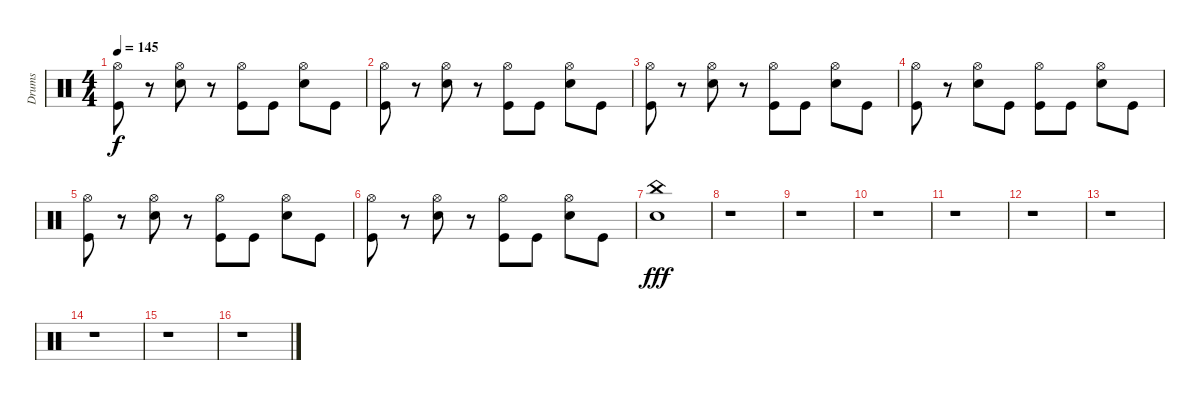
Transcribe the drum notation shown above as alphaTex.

\track ("Drums" "Drums") {instrument percussion}
\staff {score}
\articulation defaults
\ts (4 4)
\tempo 145
\clef neutral
\ks c
("Hi-Hat (open)" "Kick (hit)").8{dy f} r.8 ("Hi-Hat (open)" "Snare (hit) 2").8 r.8 ("Hi-Hat (open)" "Kick (hit)").8 "Kick (hit)".8 ("Hi-Hat (open)" "Snare (hit) 2").8 "Kick (hit)".8 |
("Hi-Hat (open)" "Kick (hit)").8 r.8 ("Hi-Hat (open)" "Snare (hit) 2").8 r.8 ("Hi-Hat (open)" "Kick (hit)").8 "Kick (hit)".8 ("Hi-Hat (open)" "Snare (hit) 2").8 "Kick (hit)".8 |
("Hi-Hat (open)" "Kick (hit)").8 r.8 ("Hi-Hat (open)" "Snare (hit) 2").8 r.8 ("Hi-Hat (open)" "Kick (hit)").8 "Kick (hit)".8 ("Hi-Hat (open)" "Snare (hit) 2").8 "Kick (hit)".8 |
("Hi-Hat (open)" "Kick (hit)").8 r.8 ("Hi-Hat (open)" "Snare (hit) 2").8 "Kick (hit)".8 ("Hi-Hat (open)" "Kick (hit)").8 "Kick (hit)".8 ("Hi-Hat (open)" "Snare (hit) 2").8 "Kick (hit)".8 |
("Hi-Hat (open)" "Kick (hit)").8 r.8 ("Hi-Hat (open)" "Snare (hit) 2").8 r.8 ("Hi-Hat (open)" "Kick (hit)").8 "Kick (hit)".8 ("Hi-Hat (open)" "Snare (hit) 2").8 "Kick (hit)".8 |
("Hi-Hat (open)" "Kick (hit)").8 r.8 ("Hi-Hat (open)" "Snare (hit) 2").8 r.8 ("Hi-Hat (open)" "Kick (hit)").8 "Kick (hit)".8 ("Hi-Hat (open)" "Snare (hit) 2").8 "Kick (hit)".8 |
("Snare (hit) 2" "China (hit)").1{dy fff} |
r.1 |
r.1 |
r.1 |
r.1 |
r.1 |
r.1 |
r.1 |
r.1 |
r.1
